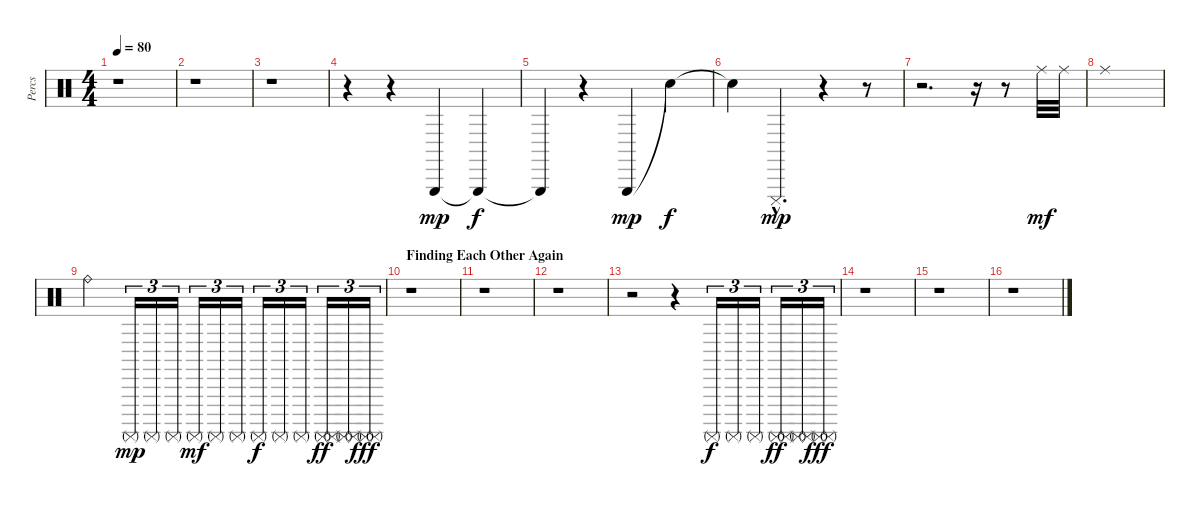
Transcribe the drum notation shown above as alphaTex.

\track ("Percs" "Percs") {instrument percussion}
\staff {score}
\articulation defaults
\ts (4 4)
\tempo 80
\clef neutral
\ks c
r.1{dy f} |
r.1 |
r.1 |
r.4 r.4 "Triangle (hit)".4{dy mp} "Triangle (hit)"{t}.4{dy f} |
"Triangle (hit)"{t}.4 r.4 "Triangle (hit)".4{dy mp} "Snare (hit)"{t}.4{dy f} |
"Snare (hit)"{t}.4 "Cuica (mute)"{hac}.4{d dy mp} r.4 r.8 |
r.2{d} r.16 r.8 "Ride (middle)".32{dy mf} "Ride (middle)".32 |
"Ride (middle)".1 |
"Ride (bell)".2 "Surdo (mute)".16{tu (3 2) dy mp} "Surdo (mute)".16{tu (3 2)} "Surdo (mute)".16{tu (3 2)} "Surdo (mute)".16{tu (3 2) dy mf} "Surdo (mute)".16{tu (3 2)} "Surdo (mute)".16{tu (3 2)} "Surdo (mute)".16{tu (3 2) dy f} "Surdo (mute)".16{tu (3 2)} "Surdo (mute)".16{tu (3 2)} ("Surdo (mute)" "Surdo (mute)").16{tu (3 2) dy ff} ("Surdo (mute)" "Surdo (mute)").16{tu (3 2)} ("Surdo (mute)" "Surdo (mute)").16{tu (3 2) dy fff} |
\section ("" "Finding Each Other Again")
r.1 |
r.1 |
r.1 |
r.2 r.4 "Surdo (mute)".16{tu (3 2) dy f} "Surdo (mute)".16{tu (3 2)} "Surdo (mute)".16{tu (3 2)} ("Surdo (mute)" "Surdo (mute)").16{tu (3 2) dy ff} ("Surdo (mute)" "Surdo (mute)").16{tu (3 2)} ("Surdo (mute)" "Surdo (mute)").16{tu (3 2) dy fff} |
r.1 |
r.1 |
r.1
